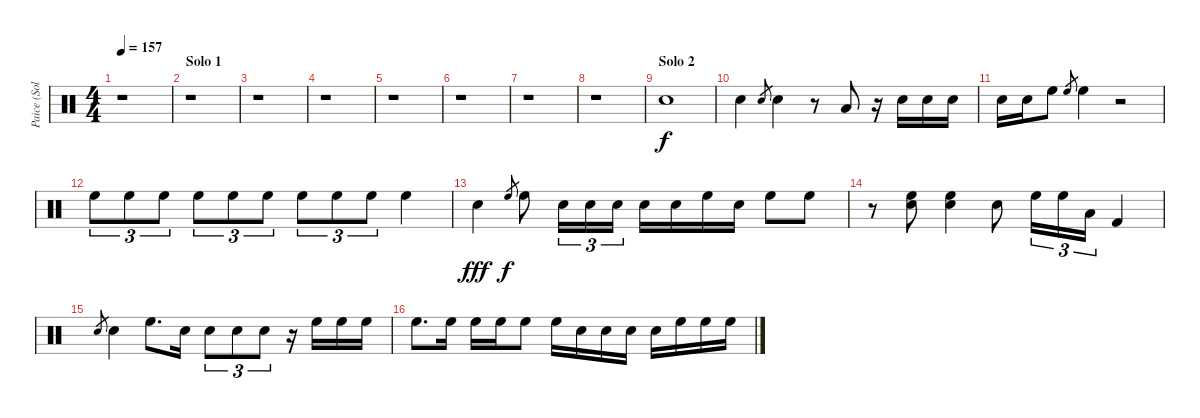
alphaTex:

\track ("Paice (Solo)" "Paice (Sol") {instrument percussion}
\staff {score}
\articulation defaults
\ts (4 4)
\tempo 157
\clef neutral
\ks c
r.1{dy f} |
\section ("" "Solo 1")
r.1 |
r.1 |
r.1 |
r.1 |
r.1 |
r.1 |
r.1 |
\section ("" "Solo 2")
"Snare (hit) 2".1{volume 16} |
"Snare (hit) 2".4 "Snare (hit) 2".8{gr} "Snare (hit) 2".4 r.8 "Low Tom (hit)".8 r.16 "Snare (hit) 2".16 "Snare (hit) 2".16 "Snare (hit) 2".16 |
"Snare (hit) 2".16 "Snare (hit) 2".16 "High Floor Tom (hit)".8 "High Floor Tom (hit)".8{gr} "High Floor Tom (hit)".4 r.2 |
"High Floor Tom (hit)".8{tu (3 2)} "High Floor Tom (hit)".8{tu (3 2)} "High Floor Tom (hit)".8{tu (3 2)} "High Floor Tom (hit)".8{tu (3 2)} "High Floor Tom (hit)".8{tu (3 2)} "High Floor Tom (hit)".8{tu (3 2)} "High Floor Tom (hit)".8{tu (3 2)} "High Floor Tom (hit)".8{tu (3 2)} "High Floor Tom (hit)".8{tu (3 2)} "High Floor Tom (hit)".4 |
"Snare (hit) 2".4{dy fff} "High Floor Tom (hit)".8{gr dy f} "High Floor Tom (hit)".8 "Snare (hit) 2".16{tu (3 2)} "Snare (hit) 2".16{tu (3 2)} "Snare (hit) 2".16{tu (3 2)} "Snare (hit) 2".16 "Snare (hit) 2".16 "High Floor Tom (hit)".16 "Snare (hit) 2".16 "High Floor Tom (hit)".8 "High Floor Tom (hit)".8 |
r.8 ("High Floor Tom (hit)" "Snare (hit) 2").8 ("High Floor Tom (hit)" "Snare (hit) 2").4 "Snare (hit) 2".8 "High Floor Tom (hit)".16{tu (3 2)} "High Floor Tom (hit)".16{tu (3 2)} "Low Tom (hit)".16{tu (3 2)} "Kick (hit) 2".4 |
"Snare (hit) 2".8{gr} "Snare (hit) 2".4 "High Floor Tom (hit)".8{d} "Snare (hit) 2".16 "Snare (hit) 2".8{tu (3 2)} "Snare (hit) 2".8{tu (3 2)} "Snare (hit) 2".8{tu (3 2)} r.16 "High Floor Tom (hit)".16 "High Floor Tom (hit)".16 "High Floor Tom (hit)".16 |
"High Floor Tom (hit)".8{d} "High Floor Tom (hit)".16 "High Floor Tom (hit)".16 "High Floor Tom (hit)".16 "High Floor Tom (hit)".8 "High Floor Tom (hit)".16 "Snare (hit) 2".16 "Snare (hit) 2".16 "Snare (hit) 2".16 "Snare (hit) 2".16 "High Floor Tom (hit)".16 "High Floor Tom (hit)".16 "High Floor Tom (hit)".16
